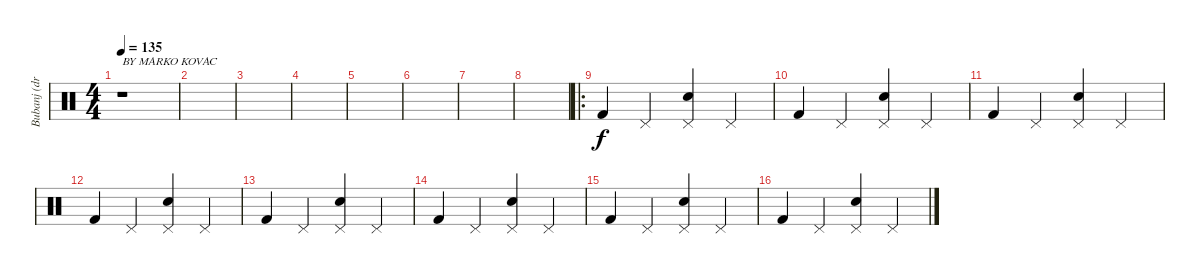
\track ("Bubanj (drums)" "Bubanj (dr") {instrument percussion}
\staff {score}
\articulation defaults
\ts (4 4)
\tempo 135
\clef neutral
\ks c
r.1{txt "BY MARKO KOVAC" dy f} |
|
|
|
|
|
|
|
\ro "Kick (hit) 2".4 "Pedal Hi-Hat (hit)".4
("Pedal Hi-Hat (hit)" "Snare (hit) 2").4 "Pedal Hi-Hat (hit)".4 |
"Kick (hit) 2".4 "Pedal Hi-Hat (hit)".4 ("Pedal Hi-Hat (hit)" "Snare (hit) 2").4 "Pedal Hi-Hat (hit)".4 |
"Kick (hit) 2".4 "Pedal Hi-Hat (hit)".4 ("Pedal Hi-Hat (hit)" "Snare (hit) 2").4 "Pedal Hi-Hat (hit)".4 |
"Kick (hit) 2".4 "Pedal Hi-Hat (hit)".4 ("Pedal Hi-Hat (hit)" "Snare (hit) 2").4 "Pedal Hi-Hat (hit)".4 |
"Kick (hit) 2".4 "Pedal Hi-Hat (hit)".4 ("Pedal Hi-Hat (hit)" "Snare (hit) 2").4 "Pedal Hi-Hat (hit)".4 |
"Kick (hit) 2".4 "Pedal Hi-Hat (hit)".4 ("Pedal Hi-Hat (hit)" "Snare (hit) 2").4 "Pedal Hi-Hat (hit)".4 |
"Kick (hit) 2".4 "Pedal Hi-Hat (hit)".4 ("Pedal Hi-Hat (hit)" "Snare (hit) 2").4 "Pedal Hi-Hat (hit)".4 |
"Kick (hit) 2".4 "Pedal Hi-Hat (hit)".4 ("Pedal Hi-Hat (hit)" "Snare (hit) 2").4 "Pedal Hi-Hat (hit)".4
